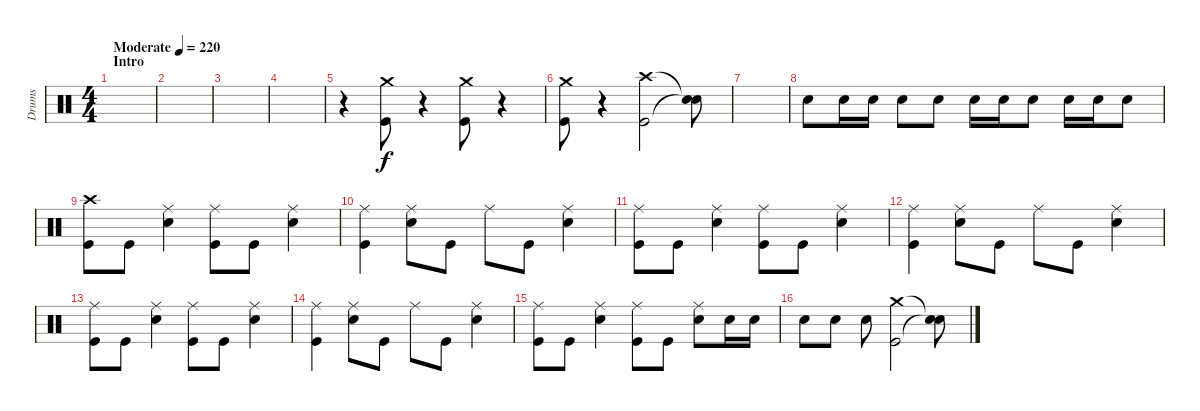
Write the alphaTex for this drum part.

\track ("Drums" "Drums") {instrument percussion}
\staff {score}
\articulation defaults
\ts (4 4)
\section ("" "Intro")
\tempo (220 "Moderate")
\clef neutral
\ks c
|
|
|
|
r.4 ("Crash medium (hit)" "Kick (hit)").8 r.4 ("Crash medium (hit)" "Kick (hit)").8 r.4 |
("Crash medium (hit)" "Kick (hit)").8 r.4 ("Crash high (hit)" "Kick (hit)").2 ("Snare (hit)"{t} "Snare (hit)"{t}).8 |
|
"Snare (hit) 2".8 "Snare (hit) 2".16 "Snare (hit) 2".16 "Snare (hit) 2".8 "Snare (hit) 2".8 "Snare (hit) 2".16 "Snare (hit) 2".16 "Snare (hit) 2".8 "Snare (hit) 2".16 "Snare (hit) 2".16 "Snare (hit) 2".8 |
("Crash high (hit)" "Kick (hit)").8 "Kick (hit)".8 ("Ride (middle)" "Snare (hit) 2").4 ("Ride (middle)" "Kick (hit)").8 "Kick (hit)".8 ("Ride (middle)" "Snare (hit) 2").4 |
("Ride (middle)" "Kick (hit)").4 ("Ride (middle)" "Snare (hit) 2").8 "Kick (hit)".8 "Ride (middle)".8 "Kick (hit)".8 ("Ride (middle)" "Snare (hit) 2").4 |
("Ride (middle)" "Kick (hit)").8 "Kick (hit)".8 ("Ride (middle)" "Snare (hit) 2").4 ("Ride (middle)" "Kick (hit)").8 "Kick (hit)".8 ("Ride (middle)" "Snare (hit) 2").4 |
("Ride (middle)" "Kick (hit)").4 ("Ride (middle)" "Snare (hit) 2").8 "Kick (hit)".8 "Ride (middle)".8 "Kick (hit)".8 ("Ride (middle)" "Snare (hit) 2").4 |
("Ride (middle)" "Kick (hit)").8 "Kick (hit)".8 ("Ride (middle)" "Snare (hit) 2").4 ("Ride (middle)" "Kick (hit)").8 "Kick (hit)".8 ("Ride (middle)" "Snare (hit) 2").4 |
("Ride (middle)" "Kick (hit)").4 ("Ride (middle)" "Snare (hit) 2").8 "Kick (hit)".8 "Ride (middle)".8 "Kick (hit)".8 ("Ride (middle)" "Snare (hit) 2").4 |
("Ride (middle)" "Kick (hit)").8 "Kick (hit)".8 ("Ride (middle)" "Snare (hit) 2").4 ("Ride (middle)" "Kick (hit)").8 "Kick (hit)".8 ("Ride (middle)" "Snare (hit) 2").8 "Snare (hit) 2".16 "Snare (hit) 2".16 |
"Snare (hit) 2".8 "Snare (hit) 2".8 "Snare (hit) 2".8 ("Crash medium (hit)" "Kick (hit)").2 ("Snare (hit)"{t} "Snare (hit)"{t}).8
